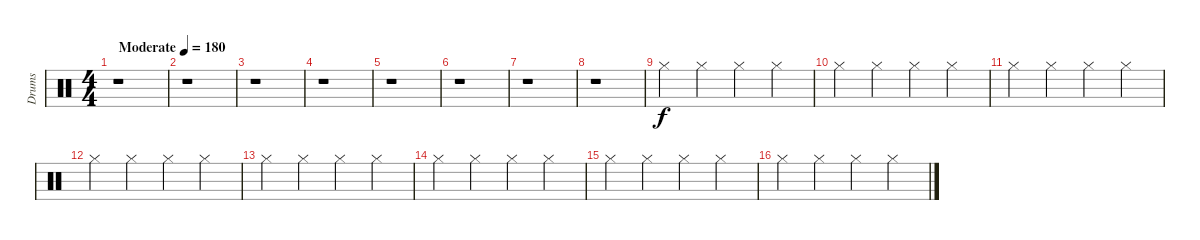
\track ("Drums" "Drums") {instrument percussion}
\staff {score}
\articulation defaults
\ts (4 4)
\tempo (180 "Moderate")
\clef neutral
\ks c
r.1{dy f} |
r.1 |
r.1 |
r.1 |
r.1 |
r.1 |
r.1 |
r.1 |
"Hi-Hat (closed)".4 "Hi-Hat (closed)".4 "Hi-Hat (closed)".4 "Hi-Hat (closed)".4 |
"Hi-Hat (closed)".4 "Hi-Hat (closed)".4 "Hi-Hat (closed)".4 "Hi-Hat (closed)".4 |
"Hi-Hat (closed)".4 "Hi-Hat (closed)".4 "Hi-Hat (closed)".4 "Hi-Hat (closed)".4 |
"Hi-Hat (closed)".4 "Hi-Hat (closed)".4 "Hi-Hat (closed)".4 "Hi-Hat (closed)".4 |
"Hi-Hat (closed)".4 "Hi-Hat (closed)".4 "Hi-Hat (closed)".4 "Hi-Hat (closed)".4 |
"Hi-Hat (closed)".4 "Hi-Hat (closed)".4 "Hi-Hat (closed)".4 "Hi-Hat (closed)".4 |
"Hi-Hat (closed)".4 "Hi-Hat (closed)".4 "Hi-Hat (closed)".4 "Hi-Hat (closed)".4 |
"Hi-Hat (closed)".4 "Hi-Hat (closed)".4 "Hi-Hat (closed)".4 "Hi-Hat (closed)".4
